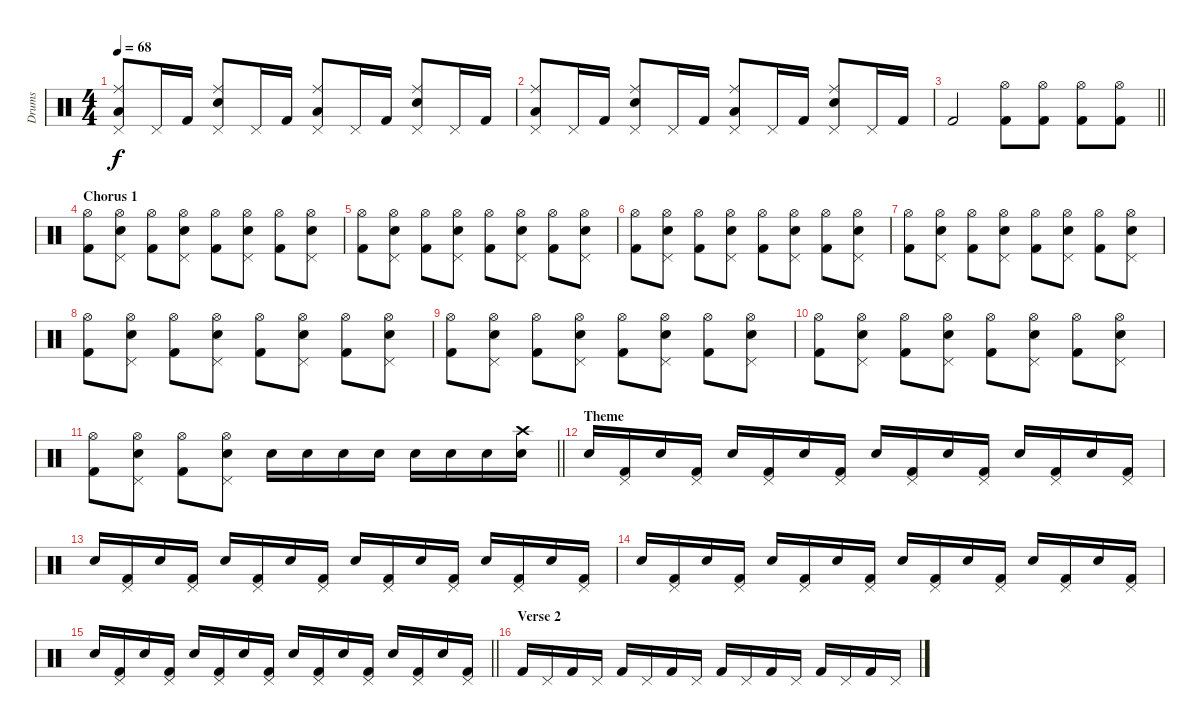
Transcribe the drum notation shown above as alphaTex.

\track ("Drums" "Drums") {instrument percussion}
\staff {score}
\articulation defaults
\ts (4 4)
\tempo 68
\clef neutral
\ks c
("Low Tom (hit)" "Ride (middle)" "Pedal Hi-Hat (hit)").8{dy f} "Pedal Hi-Hat (hit)".16 "Kick (hit) 2".16 ("Electric Snare (hit)" "Ride (middle)" "Pedal Hi-Hat (hit)").8 "Pedal Hi-Hat (hit)".16{beam merge} "Kick (hit) 2".16 ("Low Tom (hit)" "Ride (middle)" "Pedal Hi-Hat (hit)").8 "Pedal Hi-Hat (hit)".16 "Kick (hit) 2".16 ("Electric Snare (hit)" "Ride (middle)" "Pedal Hi-Hat (hit)").8 "Pedal Hi-Hat (hit)".16{beam merge} "Kick (hit) 2".16 |
("Low Tom (hit)" "Ride (middle)" "Pedal Hi-Hat (hit)").8 "Pedal Hi-Hat (hit)".16 "Kick (hit) 2".16 ("Electric Snare (hit)" "Ride (middle)" "Pedal Hi-Hat (hit)").8 "Pedal Hi-Hat (hit)".16{beam merge} "Kick (hit) 2".16 ("Low Tom (hit)" "Ride (middle)" "Pedal Hi-Hat (hit)").8 "Pedal Hi-Hat (hit)".16 "Kick (hit) 2".16 ("Electric Snare (hit)" "Ride (middle)" "Pedal Hi-Hat (hit)").8 "Pedal Hi-Hat (hit)".16{beam merge} "Kick (hit) 2".16 |
\barLineRight lightlight "Kick (hit) 2".2
("Kick (hit) 2" "Hi-Hat (open)").8 ("Kick (hit) 2" "Hi-Hat (open)").8 ("Kick (hit) 2" "Hi-Hat (open)").8 ("Kick (hit) 2" "Hi-Hat (open)").8 |
\section ("" "Chorus 1")
("Kick (hit) 2" "Hi-Hat (open)").8 ("Snare (hit) 2" "Pedal Hi-Hat (hit)" "Hi-Hat (open)").8 ("Kick (hit) 2" "Hi-Hat (open)").8 ("Snare (hit) 2" "Pedal Hi-Hat (hit)" "Hi-Hat (open)").8 ("Kick (hit) 2" "Hi-Hat (open)").8 ("Snare (hit) 2" "Pedal Hi-Hat (hit)" "Hi-Hat (open)").8 ("Kick (hit) 2" "Hi-Hat (open)").8 ("Snare (hit) 2" "Pedal Hi-Hat (hit)" "Hi-Hat (open)").8 |
("Kick (hit) 2" "Hi-Hat (open)").8 ("Snare (hit) 2" "Pedal Hi-Hat (hit)" "Hi-Hat (open)").8 ("Kick (hit) 2" "Hi-Hat (open)").8 ("Snare (hit) 2" "Pedal Hi-Hat (hit)" "Hi-Hat (open)").8 ("Kick (hit) 2" "Hi-Hat (open)").8 ("Snare (hit) 2" "Pedal Hi-Hat (hit)" "Hi-Hat (open)").8 ("Kick (hit) 2" "Hi-Hat (open)").8 ("Snare (hit) 2" "Pedal Hi-Hat (hit)" "Hi-Hat (open)").8 |
("Kick (hit) 2" "Hi-Hat (open)").8 ("Snare (hit) 2" "Pedal Hi-Hat (hit)" "Hi-Hat (open)").8 ("Kick (hit) 2" "Hi-Hat (open)").8 ("Snare (hit) 2" "Pedal Hi-Hat (hit)" "Hi-Hat (open)").8 ("Kick (hit) 2" "Hi-Hat (open)").8 ("Snare (hit) 2" "Pedal Hi-Hat (hit)" "Hi-Hat (open)").8 ("Kick (hit) 2" "Hi-Hat (open)").8 ("Snare (hit) 2" "Pedal Hi-Hat (hit)" "Hi-Hat (open)").8 |
("Kick (hit) 2" "Hi-Hat (open)").8 ("Snare (hit) 2" "Pedal Hi-Hat (hit)" "Hi-Hat (open)").8 ("Kick (hit) 2" "Hi-Hat (open)").8 ("Snare (hit) 2" "Pedal Hi-Hat (hit)" "Hi-Hat (open)").8 ("Kick (hit) 2" "Hi-Hat (open)").8 ("Snare (hit) 2" "Pedal Hi-Hat (hit)" "Hi-Hat (open)").8 ("Kick (hit) 2" "Hi-Hat (open)").8 ("Snare (hit) 2" "Pedal Hi-Hat (hit)" "Hi-Hat (open)").8 |
("Kick (hit) 2" "Hi-Hat (open)").8 ("Snare (hit) 2" "Pedal Hi-Hat (hit)" "Hi-Hat (open)").8 ("Kick (hit) 2" "Hi-Hat (open)").8 ("Snare (hit) 2" "Pedal Hi-Hat (hit)" "Hi-Hat (open)").8 ("Kick (hit) 2" "Hi-Hat (open)").8 ("Snare (hit) 2" "Pedal Hi-Hat (hit)" "Hi-Hat (open)").8 ("Kick (hit) 2" "Hi-Hat (open)").8 ("Snare (hit) 2" "Pedal Hi-Hat (hit)" "Hi-Hat (open)").8 |
("Kick (hit) 2" "Hi-Hat (open)").8 ("Snare (hit) 2" "Pedal Hi-Hat (hit)" "Hi-Hat (open)").8 ("Kick (hit) 2" "Hi-Hat (open)").8 ("Snare (hit) 2" "Pedal Hi-Hat (hit)" "Hi-Hat (open)").8 ("Kick (hit) 2" "Hi-Hat (open)").8 ("Snare (hit) 2" "Pedal Hi-Hat (hit)" "Hi-Hat (open)").8 ("Kick (hit) 2" "Hi-Hat (open)").8 ("Snare (hit) 2" "Pedal Hi-Hat (hit)" "Hi-Hat (open)").8 |
("Kick (hit) 2" "Hi-Hat (open)").8 ("Snare (hit) 2" "Pedal Hi-Hat (hit)" "Hi-Hat (open)").8 ("Kick (hit) 2" "Hi-Hat (open)").8 ("Snare (hit) 2" "Pedal Hi-Hat (hit)" "Hi-Hat (open)").8 ("Kick (hit) 2" "Hi-Hat (open)").8 ("Snare (hit) 2" "Pedal Hi-Hat (hit)" "Hi-Hat (open)").8 ("Kick (hit) 2" "Hi-Hat (open)").8 ("Snare (hit) 2" "Pedal Hi-Hat (hit)" "Hi-Hat (open)").8 |
\barLineRight lightlight
("Kick (hit) 2" "Hi-Hat (open)").8 ("Snare (hit) 2" "Pedal Hi-Hat (hit)" "Hi-Hat (open)").8 ("Kick (hit) 2" "Hi-Hat (open)").8 ("Snare (hit) 2" "Pedal Hi-Hat (hit)" "Hi-Hat (open)").8 "Electric Snare (hit)".16 "Electric Snare (hit)".16 "Electric Snare (hit)".16 "Electric Snare (hit)".16 "Snare (hit) 2".16 "Snare (hit) 2".16 "Snare (hit) 2".16 ("Snare (hit) 2" "Crash high (hit)").16 |
\section ("" "Theme")
"Snare (hit) 2".16 ("Pedal Hi-Hat (hit)" "Kick (hit) 2").16 "Snare (hit) 2".16 ("Pedal Hi-Hat (hit)" "Kick (hit) 2").16 "Snare (hit) 2".16 ("Pedal Hi-Hat (hit)" "Kick (hit) 2").16 "Snare (hit) 2".16 ("Pedal Hi-Hat (hit)" "Kick (hit) 2").16 "Snare (hit) 2".16 ("Pedal Hi-Hat (hit)" "Kick (hit) 2").16 "Snare (hit) 2".16 ("Pedal Hi-Hat (hit)" "Kick (hit) 2").16 "Snare (hit) 2".16 ("Pedal Hi-Hat (hit)" "Kick (hit) 2").16 "Snare (hit) 2".16 ("Pedal Hi-Hat (hit)" "Kick (hit) 2").16 |
"Snare (hit) 2".16 ("Pedal Hi-Hat (hit)" "Kick (hit) 2").16 "Snare (hit) 2".16 ("Pedal Hi-Hat (hit)" "Kick (hit) 2").16 "Snare (hit) 2".16 ("Pedal Hi-Hat (hit)" "Kick (hit) 2").16 "Snare (hit) 2".16 ("Pedal Hi-Hat (hit)" "Kick (hit) 2").16 "Snare (hit) 2".16 ("Pedal Hi-Hat (hit)" "Kick (hit) 2").16 "Snare (hit) 2".16 ("Pedal Hi-Hat (hit)" "Kick (hit) 2").16 "Snare (hit) 2".16 ("Pedal Hi-Hat (hit)" "Kick (hit) 2").16 "Snare (hit) 2".16 ("Pedal Hi-Hat (hit)" "Kick (hit) 2").16 |
"Snare (hit) 2".16 ("Pedal Hi-Hat (hit)" "Kick (hit) 2").16 "Snare (hit) 2".16 ("Pedal Hi-Hat (hit)" "Kick (hit) 2").16 "Snare (hit) 2".16 ("Pedal Hi-Hat (hit)" "Kick (hit) 2").16 "Snare (hit) 2".16 ("Pedal Hi-Hat (hit)" "Kick (hit) 2").16 "Snare (hit) 2".16 ("Pedal Hi-Hat (hit)" "Kick (hit) 2").16 "Snare (hit) 2".16 ("Pedal Hi-Hat (hit)" "Kick (hit) 2").16 "Snare (hit) 2".16 ("Pedal Hi-Hat (hit)" "Kick (hit) 2").16 "Snare (hit) 2".16 ("Pedal Hi-Hat (hit)" "Kick (hit) 2").16 |
\barLineRight lightlight "Snare (hit) 2".16
("Pedal Hi-Hat (hit)" "Kick (hit) 2").16 "Snare (hit) 2".16 ("Pedal Hi-Hat (hit)" "Kick (hit) 2").16 "Snare (hit) 2".16 ("Pedal Hi-Hat (hit)" "Kick (hit) 2").16 "Snare (hit) 2".16 ("Pedal Hi-Hat (hit)" "Kick (hit) 2").16 "Snare (hit) 2".16 ("Pedal Hi-Hat (hit)" "Kick (hit) 2").16 "Snare (hit) 2".16 ("Pedal Hi-Hat (hit)" "Kick (hit) 2").16 "Snare (hit) 2".16 ("Pedal Hi-Hat (hit)" "Kick (hit) 2").16 "Snare (hit) 2".16 ("Pedal Hi-Hat (hit)" "Kick (hit) 2").16 |
\section ("" "Verse 2")
"Kick (hit) 2".16 "Pedal Hi-Hat (hit)".16 "Kick (hit) 2".16 "Pedal Hi-Hat (hit)".16 "Kick (hit) 2".16 "Pedal Hi-Hat (hit)".16 "Kick (hit) 2".16 "Pedal Hi-Hat (hit)".16 "Kick (hit) 2".16 "Pedal Hi-Hat (hit)".16 "Kick (hit) 2".16 "Pedal Hi-Hat (hit)".16 "Kick (hit) 2".16 "Pedal Hi-Hat (hit)".16 "Kick (hit) 2".16 "Pedal Hi-Hat (hit)".16
